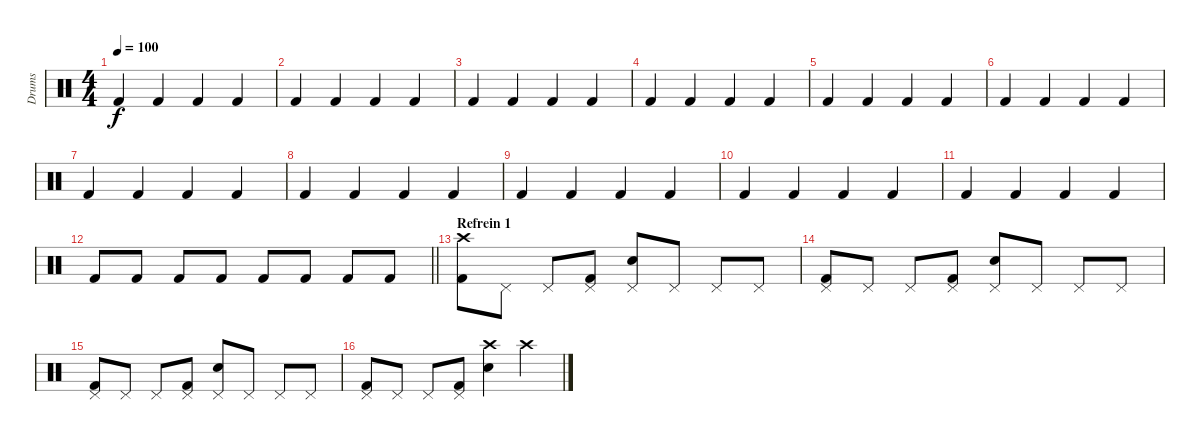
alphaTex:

\track ("Drums" "Drums") {instrument percussion}
\staff {score}
\articulation defaults
\ts (4 4)
\tempo 100
\clef neutral
\ks c "Kick (hit) 2".4{dy f} "Kick (hit) 2".4 "Kick (hit) 2".4 "Kick (hit) 2".4
|
"Kick (hit) 2".4 "Kick (hit) 2".4 "Kick (hit) 2".4 "Kick (hit) 2".4 |
"Kick (hit) 2".4 "Kick (hit) 2".4 "Kick (hit) 2".4 "Kick (hit) 2".4 |
"Kick (hit) 2".4 "Kick (hit) 2".4 "Kick (hit) 2".4 "Kick (hit) 2".4 |
"Kick (hit) 2".4 "Kick (hit) 2".4 "Kick (hit) 2".4 "Kick (hit) 2".4 |
"Kick (hit) 2".4 "Kick (hit) 2".4 "Kick (hit) 2".4 "Kick (hit) 2".4 |
"Kick (hit) 2".4 "Kick (hit) 2".4 "Kick (hit) 2".4 "Kick (hit) 2".4 |
"Kick (hit) 2".4 "Kick (hit) 2".4 "Kick (hit) 2".4 "Kick (hit) 2".4 |
"Kick (hit) 2".4 "Kick (hit) 2".4 "Kick (hit) 2".4 "Kick (hit) 2".4 |
"Kick (hit) 2".4 "Kick (hit) 2".4 "Kick (hit) 2".4 "Kick (hit) 2".4 |
"Kick (hit) 2".4 "Kick (hit) 2".4 "Kick (hit) 2".4 "Kick (hit) 2".4 |
\barLineRight lightlight "Kick (hit) 2".8 "Kick (hit) 2".8 "Kick (hit) 2".8 "Kick (hit) 2".8 "Kick (hit) 2".8 "Kick (hit) 2".8 "Kick (hit) 2".8 "Kick (hit) 2".8
|
\section ("" "Refrein 1")
("Crash high (hit)" "Kick (hit) 2").8 "Pedal Hi-Hat (hit)".8 "Pedal Hi-Hat (hit)".8 ("Pedal Hi-Hat (hit)" "Kick (hit) 2").8 ("Pedal Hi-Hat (hit)" "Snare (hit) 2").8 "Pedal Hi-Hat (hit)".8 "Pedal Hi-Hat (hit)".8 "Pedal Hi-Hat (hit)".8 |
("Pedal Hi-Hat (hit)" "Kick (hit) 2").8 "Pedal Hi-Hat (hit)".8 "Pedal Hi-Hat (hit)".8 ("Pedal Hi-Hat (hit)" "Kick (hit) 2").8 ("Pedal Hi-Hat (hit)" "Snare (hit) 2").8 "Pedal Hi-Hat (hit)".8 "Pedal Hi-Hat (hit)".8 "Pedal Hi-Hat (hit)".8 |
("Pedal Hi-Hat (hit)" "Kick (hit) 2").8 "Pedal Hi-Hat (hit)".8 "Pedal Hi-Hat (hit)".8 ("Pedal Hi-Hat (hit)" "Kick (hit) 2").8 ("Pedal Hi-Hat (hit)" "Snare (hit) 2").8 "Pedal Hi-Hat (hit)".8 "Pedal Hi-Hat (hit)".8 "Pedal Hi-Hat (hit)".8 |
("Pedal Hi-Hat (hit)" "Kick (hit) 2").8 "Pedal Hi-Hat (hit)".8 "Pedal Hi-Hat (hit)".8 ("Pedal Hi-Hat (hit)" "Kick (hit) 2").8 ("Crash high (hit)" "Snare (hit) 2").4 "Crash high (hit)".4
